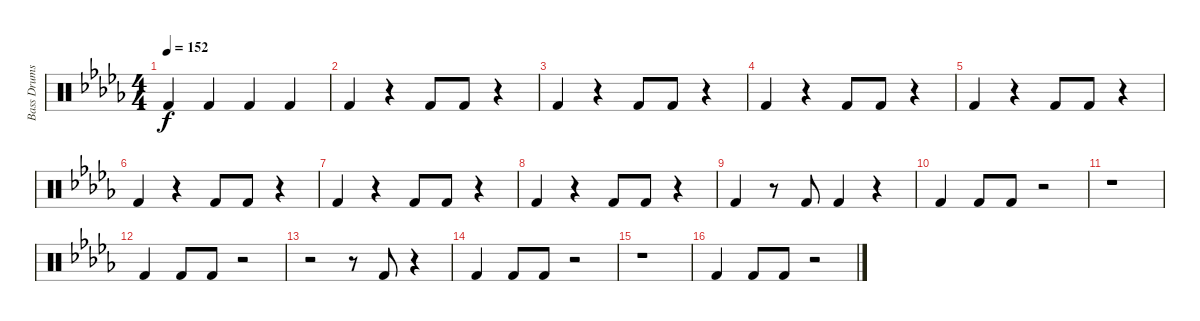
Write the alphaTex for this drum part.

\track ("Bass Drums" "Bass Drums") {instrument percussion}
\staff {score}
\articulation defaults
\ts (4 4)
\tempo 152
\clef neutral
\ks db "Kick (hit) 2".4{dy f} "Kick (hit) 2".4 "Kick (hit) 2".4 "Kick (hit) 2".4
|
"Kick (hit) 2".4 r.4 "Kick (hit) 2".8 "Kick (hit) 2".8 r.4 |
"Kick (hit) 2".4 r.4 "Kick (hit) 2".8 "Kick (hit) 2".8 r.4 |
"Kick (hit) 2".4 r.4 "Kick (hit) 2".8 "Kick (hit) 2".8 r.4 |
"Kick (hit) 2".4 r.4 "Kick (hit) 2".8 "Kick (hit) 2".8 r.4 |
"Kick (hit) 2".4 r.4 "Kick (hit) 2".8 "Kick (hit) 2".8 r.4 |
"Kick (hit) 2".4 r.4 "Kick (hit) 2".8 "Kick (hit) 2".8 r.4 |
"Kick (hit) 2".4 r.4 "Kick (hit) 2".8 "Kick (hit) 2".8 r.4 |
"Kick (hit) 2".4 r.8 "Kick (hit) 2".8 "Kick (hit) 2".4 r.4 |
"Kick (hit) 2".4 "Kick (hit) 2".8 "Kick (hit) 2".8 r.2 |
r.1 |
"Kick (hit) 2".4 "Kick (hit) 2".8 "Kick (hit) 2".8 r.2 |
r.2 r.8 "Kick (hit) 2".8 r.4 |
"Kick (hit) 2".4 "Kick (hit) 2".8 "Kick (hit) 2".8 r.2 |
r.1 |
"Kick (hit) 2".4 "Kick (hit) 2".8 "Kick (hit) 2".8 r.2
